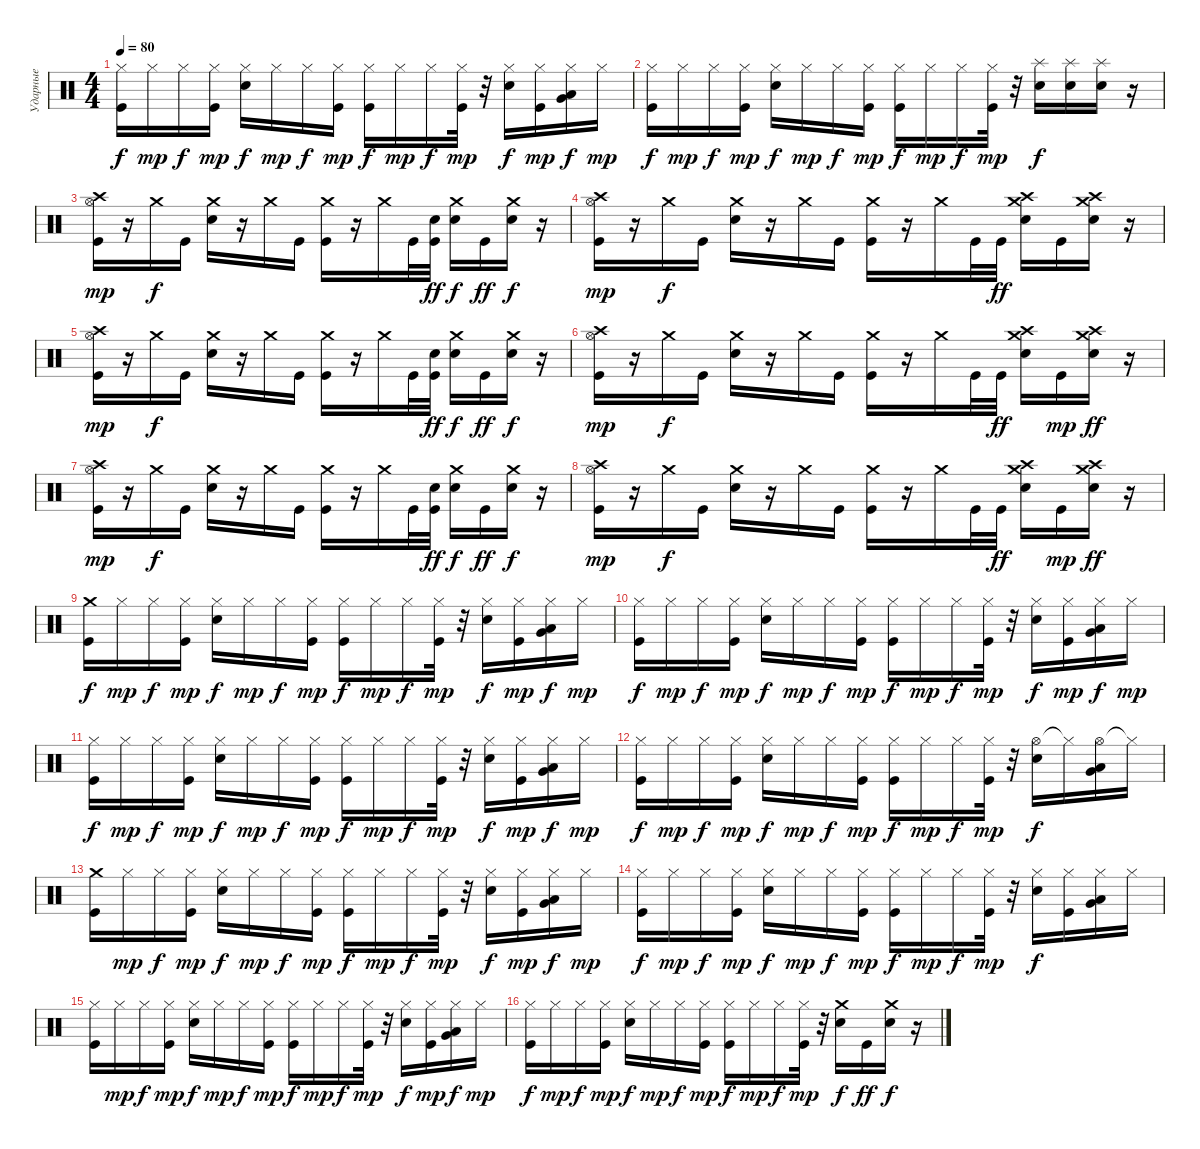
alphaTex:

\track ("Ударные" "Ударные") {instrument percussion}
\staff {score}
\articulation defaults
\ts (4 4)
\tempo 80
\clef neutral
\ks c
("Hi-Hat (closed)" "Kick (hit)").16{dy f} "Hi-Hat (closed)".16{dy mp} "Hi-Hat (closed)".16{dy f} ("Hi-Hat (closed)" "Kick (hit)").16{dy mp} ("Hi-Hat (closed)" "Electric Snare (hit)").16{dy f} "Hi-Hat (closed)".16{dy mp} "Hi-Hat (closed)".16{dy f} ("Hi-Hat (closed)" "Kick (hit)").16{dy mp} ("Hi-Hat (closed)" "Kick (hit)").16{dy f} "Hi-Hat (closed)".16{dy mp} "Hi-Hat (closed)".16{dy f} ("Hi-Hat (closed)" "Kick (hit)").32{dy mp} r.32 ("Hi-Hat (closed)" "Electric Snare (hit)").16{dy f} ("Hi-Hat (closed)" "Kick (hit)").16{dy mp} ("Hi-Hat (closed)" "Low Floor Tom (hit)" "Very Low Tom (hit)").16{dy f} "Hi-Hat (closed)".16{dy mp} |
("Hi-Hat (closed)" "Kick (hit)").16{dy f} "Hi-Hat (closed)".16{dy mp} "Hi-Hat (closed)".16{dy f} ("Hi-Hat (closed)" "Kick (hit)").16{dy mp} ("Hi-Hat (closed)" "Electric Snare (hit)").16{dy f} "Hi-Hat (closed)".16{dy mp} "Hi-Hat (closed)".16{dy f} ("Hi-Hat (closed)" "Kick (hit)").16{dy mp} ("Hi-Hat (closed)" "Kick (hit)").16{dy f} "Hi-Hat (closed)".16{dy mp} "Hi-Hat (closed)".16{dy f} ("Hi-Hat (closed)" "Kick (hit)").32{dy mp} r.32 ("Splash (hit)" "Electric Snare (hit)").16{dy f} ("Splash (hit)" "Electric Snare (hit)").16 ("Splash (hit)" "Electric Snare (hit)").16 r.16 |
("Crash high (hit)" "Hi-Hat (open)" "Kick (hit)").16{dy mp} r.16 "Crash medium (hit)".16{dy f} "Kick (hit)".16 ("Crash medium (hit)" "Electric Snare (hit)").16 r.16 "Crash medium (hit)".16 "Kick (hit)".16 ("Crash medium (hit)" "Kick (hit)").16 r.16 "Crash medium (hit)".16 "Kick (hit)".32 ("Snare (hit)" "Kick (hit)").32{dy ff} ("Crash medium (hit)" "Electric Snare (hit)").16{dy f} "Kick (hit)".16{dy ff} ("Crash medium (hit)" "Electric Snare (hit)").16{dy f} r.16 |
("Crash high (hit)" "Hi-Hat (open)" "Kick (hit)").16{dy mp} r.16 "Crash medium (hit)".16{dy f} "Kick (hit)".16 ("Crash medium (hit)" "Electric Snare (hit)").16 r.16 "Crash medium (hit)".16 "Kick (hit)".16 ("Crash medium (hit)" "Kick (hit)").16 r.16 "Crash medium (hit)".16 "Kick (hit)".32 "Kick (hit)".32{dy ff} ("Crash high (hit)" "Crash medium (hit)" "Electric Snare (hit)").16 "Kick (hit)".16 ("Crash medium (hit)" "Crash high (hit)" "Electric Snare (hit)").16 r.16 |
("Crash high (hit)" "Hi-Hat (open)" "Kick (hit)").16{dy mp} r.16 "Crash medium (hit)".16{dy f} "Kick (hit)".16 ("Crash medium (hit)" "Electric Snare (hit)").16 r.16 "Crash medium (hit)".16 "Kick (hit)".16 ("Crash medium (hit)" "Kick (hit)").16 r.16 "Crash medium (hit)".16 "Kick (hit)".32 ("Snare (hit)" "Kick (hit)").32{dy ff} ("Crash medium (hit)" "Electric Snare (hit)").16{dy f} "Kick (hit)".16{dy ff} ("Crash medium (hit)" "Electric Snare (hit)").16{dy f} r.16 |
("Crash high (hit)" "Hi-Hat (open)" "Kick (hit)").16{dy mp} r.16 "Crash medium (hit)".16{dy f} "Kick (hit)".16 ("Crash medium (hit)" "Electric Snare (hit)").16 r.16 "Crash medium (hit)".16 "Kick (hit)".16 ("Crash medium (hit)" "Kick (hit)").16 r.16 "Crash medium (hit)".16 "Kick (hit)".32 "Kick (hit)".32{dy ff} ("Crash high (hit)" "Crash medium (hit)" "Electric Snare (hit)").16 "Kick (hit)".16{dy mp} ("Crash medium (hit)" "Crash high (hit)" "Electric Snare (hit)").16{dy ff} r.16 |
("Crash high (hit)" "Hi-Hat (open)" "Kick (hit)").16{dy mp} r.16 "Crash medium (hit)".16{dy f} "Kick (hit)".16 ("Crash medium (hit)" "Electric Snare (hit)").16 r.16 "Crash medium (hit)".16 "Kick (hit)".16 ("Crash medium (hit)" "Kick (hit)").16 r.16 "Crash medium (hit)".16 "Kick (hit)".32 ("Snare (hit)" "Kick (hit)").32{dy ff} ("Crash medium (hit)" "Electric Snare (hit)").16{dy f} "Kick (hit)".16{dy ff} ("Crash medium (hit)" "Electric Snare (hit)").16{dy f} r.16 |
("Crash high (hit)" "Hi-Hat (open)" "Kick (hit)").16{dy mp} r.16 "Crash medium (hit)".16{dy f} "Kick (hit)".16 ("Crash medium (hit)" "Electric Snare (hit)").16 r.16 "Crash medium (hit)".16 "Kick (hit)".16 ("Crash medium (hit)" "Kick (hit)").16 r.16 "Crash medium (hit)".16 "Kick (hit)".32 "Kick (hit)".32{dy ff} ("Crash high (hit)" "Crash medium (hit)" "Electric Snare (hit)").16 "Kick (hit)".16{dy mp} ("Crash medium (hit)" "Crash high (hit)" "Electric Snare (hit)").16{dy ff} r.16 |
("Crash medium (hit)" "Kick (hit)").16{dy f} "Hi-Hat (closed)".16{dy mp} "Hi-Hat (closed)".16{dy f} ("Hi-Hat (closed)" "Kick (hit)").16{dy mp} ("Hi-Hat (closed)" "Electric Snare (hit)").16{dy f} "Hi-Hat (closed)".16{dy mp} "Hi-Hat (closed)".16{dy f} ("Hi-Hat (closed)" "Kick (hit)").16{dy mp} ("Hi-Hat (closed)" "Kick (hit)").16{dy f} "Hi-Hat (closed)".16{dy mp} "Hi-Hat (closed)".16{dy f} ("Hi-Hat (closed)" "Kick (hit)").32{dy mp} r.32 ("Hi-Hat (closed)" "Electric Snare (hit)").16{dy f} ("Hi-Hat (closed)" "Kick (hit)").16{dy mp} ("Hi-Hat (closed)" "Low Floor Tom (hit)" "Very Low Tom (hit)").16{dy f} "Hi-Hat (closed)".16{dy mp} |
("Hi-Hat (closed)" "Kick (hit)").16{dy f} "Hi-Hat (closed)".16{dy mp} "Hi-Hat (closed)".16{dy f} ("Hi-Hat (closed)" "Kick (hit)").16{dy mp} ("Hi-Hat (closed)" "Electric Snare (hit)").16{dy f} "Hi-Hat (closed)".16{dy mp} "Hi-Hat (closed)".16{dy f} ("Hi-Hat (closed)" "Kick (hit)").16{dy mp} ("Hi-Hat (closed)" "Kick (hit)").16{dy f} "Hi-Hat (closed)".16{dy mp} "Hi-Hat (closed)".16{dy f} ("Hi-Hat (closed)" "Kick (hit)").32{dy mp} r.32 ("Hi-Hat (closed)" "Electric Snare (hit)").16{dy f} ("Hi-Hat (closed)" "Kick (hit)").16{dy mp} ("Hi-Hat (closed)" "Low Floor Tom (hit)" "Very Low Tom (hit)").16{dy f} "Hi-Hat (closed)".16{dy mp} |
("Hi-Hat (closed)" "Kick (hit)").16{dy f} "Hi-Hat (closed)".16{dy mp} "Hi-Hat (closed)".16{dy f} ("Hi-Hat (closed)" "Kick (hit)").16{dy mp} ("Hi-Hat (closed)" "Electric Snare (hit)").16{dy f} "Hi-Hat (closed)".16{dy mp} "Hi-Hat (closed)".16{dy f} ("Hi-Hat (closed)" "Kick (hit)").16{dy mp} ("Hi-Hat (closed)" "Kick (hit)").16{dy f} "Hi-Hat (closed)".16{dy mp} "Hi-Hat (closed)".16{dy f} ("Hi-Hat (closed)" "Kick (hit)").32{dy mp} r.32 ("Hi-Hat (closed)" "Electric Snare (hit)").16{dy f} ("Hi-Hat (closed)" "Kick (hit)").16{dy mp} ("Hi-Hat (closed)" "Low Floor Tom (hit)" "Very Low Tom (hit)").16{dy f} "Hi-Hat (closed)".16{dy mp} |
("Hi-Hat (closed)" "Kick (hit)").16{dy f} "Hi-Hat (closed)".16{dy mp} "Hi-Hat (closed)".16{dy f} ("Hi-Hat (closed)" "Kick (hit)").16{dy mp} ("Hi-Hat (closed)" "Electric Snare (hit)").16{dy f} "Hi-Hat (closed)".16{dy mp} "Hi-Hat (closed)".16{dy f} ("Hi-Hat (closed)" "Kick (hit)").16{dy mp} ("Hi-Hat (closed)" "Kick (hit)").16{dy f} "Hi-Hat (closed)".16{dy mp} "Hi-Hat (closed)".16{dy f} ("Hi-Hat (closed)" "Kick (hit)").32{dy mp} r.32 ("Hi-Hat (open)" "Electric Snare (hit)").16{dy f} "Hi-Hat (closed)"{t}.16 ("Hi-Hat (open)" "Low Floor Tom (hit)" "Very Low Tom (hit)").16 "Hi-Hat (closed)"{t}.16 |
("Crash medium (hit)" "Kick (hit)").16 "Hi-Hat (closed)".16{dy mp} "Hi-Hat (closed)".16{dy f} ("Hi-Hat (closed)" "Kick (hit)").16{dy mp} ("Hi-Hat (closed)" "Electric Snare (hit)").16{dy f} "Hi-Hat (closed)".16{dy mp} "Hi-Hat (closed)".16{dy f} ("Hi-Hat (closed)" "Kick (hit)").16{dy mp} ("Hi-Hat (closed)" "Kick (hit)").16{dy f} "Hi-Hat (closed)".16{dy mp} "Hi-Hat (closed)".16{dy f} ("Hi-Hat (closed)" "Kick (hit)").32{dy mp} r.32 ("Hi-Hat (closed)" "Electric Snare (hit)").16{dy f} ("Hi-Hat (closed)" "Kick (hit)").16{dy mp} ("Hi-Hat (closed)" "Low Floor Tom (hit)" "Very Low Tom (hit)").16{dy f} "Hi-Hat (closed)".16{dy mp} |
("Hi-Hat (closed)" "Kick (hit)").16{dy f} "Hi-Hat (closed)".16{dy mp} "Hi-Hat (closed)".16{dy f} ("Hi-Hat (closed)" "Kick (hit)").16{dy mp} ("Hi-Hat (closed)" "Electric Snare (hit)").16{dy f} "Hi-Hat (closed)".16{dy mp} "Hi-Hat (closed)".16{dy f} ("Hi-Hat (closed)" "Kick (hit)").16{dy mp} ("Hi-Hat (closed)" "Kick (hit)").16{dy f} "Hi-Hat (closed)".16{dy mp} "Hi-Hat (closed)".16{dy f} ("Hi-Hat (closed)" "Kick (hit)").32{dy mp} r.32 ("Hi-Hat (closed)" "Electric Snare (hit)").16{dy f} ("Hi-Hat (closed)" "Kick (hit)").16 ("Hi-Hat (closed)" "Low Floor Tom (hit)" "Very Low Tom (hit)").16 "Hi-Hat (closed)".16 |
("Hi-Hat (closed)" "Kick (hit)").16 "Hi-Hat (closed)".16{dy mp} "Hi-Hat (closed)".16{dy f} ("Hi-Hat (closed)" "Kick (hit)").16{dy mp} ("Hi-Hat (closed)" "Electric Snare (hit)").16{dy f} "Hi-Hat (closed)".16{dy mp} "Hi-Hat (closed)".16{dy f} ("Hi-Hat (closed)" "Kick (hit)").16{dy mp} ("Hi-Hat (closed)" "Kick (hit)").16{dy f} "Hi-Hat (closed)".16{dy mp} "Hi-Hat (closed)".16{dy f} ("Hi-Hat (closed)" "Kick (hit)").32{dy mp} r.32 ("Hi-Hat (closed)" "Electric Snare (hit)").16{dy f} ("Hi-Hat (closed)" "Kick (hit)").16{dy mp} ("Hi-Hat (closed)" "Low Floor Tom (hit)" "Very Low Tom (hit)").16{dy f} "Hi-Hat (closed)".16{dy mp} |
("Hi-Hat (closed)" "Kick (hit)").16{dy f} "Hi-Hat (closed)".16{dy mp} "Hi-Hat (closed)".16{dy f} ("Hi-Hat (closed)" "Kick (hit)").16{dy mp} ("Hi-Hat (closed)" "Electric Snare (hit)").16{dy f} "Hi-Hat (closed)".16{dy mp} "Hi-Hat (closed)".16{dy f} ("Hi-Hat (closed)" "Kick (hit)").16{dy mp} ("Hi-Hat (closed)" "Kick (hit)").16{dy f} "Hi-Hat (closed)".16{dy mp} "Hi-Hat (closed)".16{dy f} ("Hi-Hat (closed)" "Kick (hit)").32{dy mp} r.32 ("Crash medium (hit)" "Electric Snare (hit)").16{dy f} "Kick (hit)".16{dy ff} ("Crash medium (hit)" "Electric Snare (hit)").16{dy f} r.16
